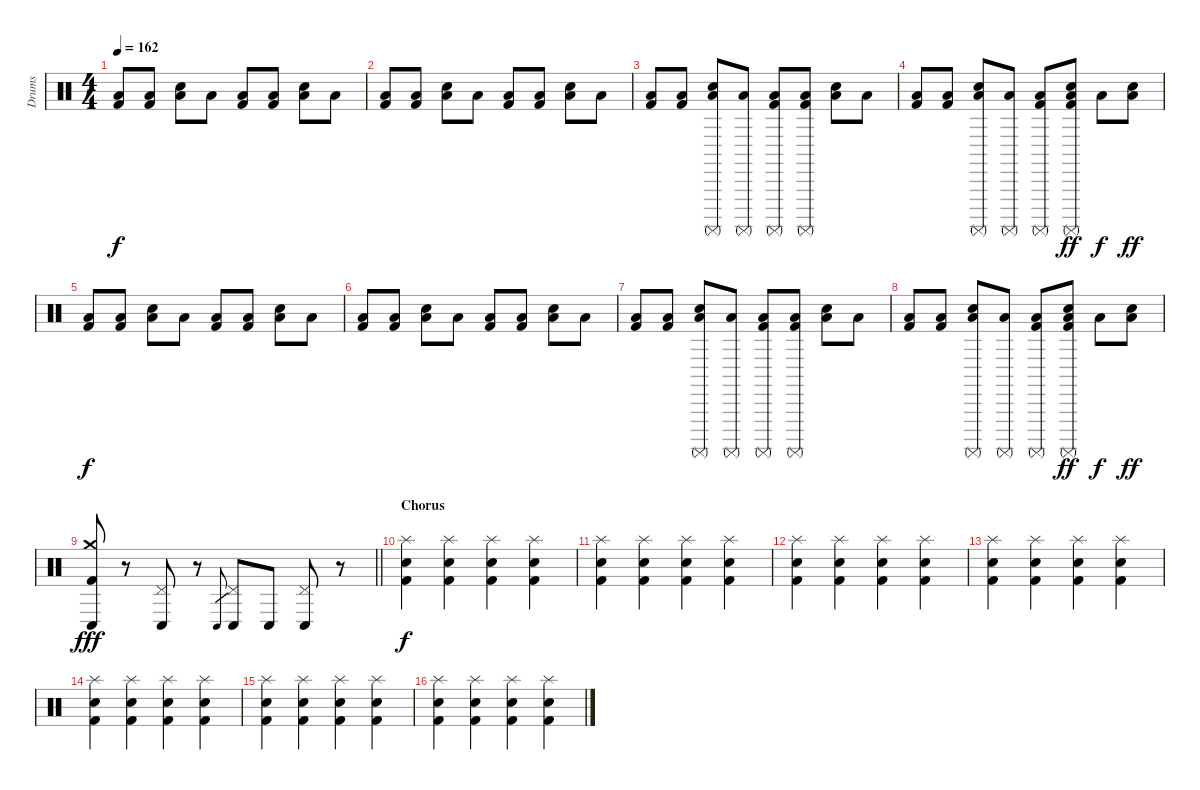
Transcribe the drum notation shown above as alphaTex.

\track ("Drums" "Drums") {instrument percussion}
\staff {score}
\articulation defaults
\ts (4 4)
\tempo 162
\clef neutral
\ks c
("Low Floor Tom (hit)" "Kick (hit) 2").8{dy f} ("Low Floor Tom (hit)" "Kick (hit) 2").8 ("Electric Snare (hit)" "Low Floor Tom (hit)").8 "Low Floor Tom (hit)".8 ("Low Floor Tom (hit)" "Kick (hit) 2").8 ("Low Floor Tom (hit)" "Kick (hit) 2").8 ("Electric Snare (hit)" "Low Floor Tom (hit)").8 "Low Floor Tom (hit)".8 |
("Low Floor Tom (hit)" "Kick (hit) 2").8 ("Low Floor Tom (hit)" "Kick (hit) 2").8 ("Electric Snare (hit)" "Low Floor Tom (hit)").8 "Low Floor Tom (hit)".8 ("Low Floor Tom (hit)" "Kick (hit) 2").8 ("Low Floor Tom (hit)" "Kick (hit) 2").8 ("Electric Snare (hit)" "Low Floor Tom (hit)").8 "Low Floor Tom (hit)".8 |
("Low Floor Tom (hit)" "Kick (hit) 2").8 ("Low Floor Tom (hit)" "Kick (hit) 2").8 ("Surdo (mute)" "Electric Snare (hit)" "Low Floor Tom (hit)").8 ("Surdo (mute)" "Low Floor Tom (hit)").8 ("Surdo (mute)" "Low Floor Tom (hit)" "Kick (hit) 2").8 ("Surdo (mute)" "Low Floor Tom (hit)" "Kick (hit) 2").8 ("Electric Snare (hit)" "Low Floor Tom (hit)").8 "Low Floor Tom (hit)".8 |
("Low Floor Tom (hit)" "Kick (hit) 2").8 ("Low Floor Tom (hit)" "Kick (hit) 2").8 ("Surdo (mute)" "Electric Snare (hit)" "Low Floor Tom (hit)").8 ("Surdo (mute)" "Low Floor Tom (hit)").8 ("Surdo (mute)" "Low Floor Tom (hit)" "Kick (hit) 2").8 ("Surdo (mute)" "Electric Snare (hit)" "Low Floor Tom (hit)" "Kick (hit) 2").8{dy ff} "Low Floor Tom (hit)".8{dy f} ("Electric Snare (hit)" "Low Floor Tom (hit)").8{dy ff} |
("Low Floor Tom (hit)" "Kick (hit) 2").8{dy f} ("Low Floor Tom (hit)" "Kick (hit) 2").8 ("Electric Snare (hit)" "Low Floor Tom (hit)").8 "Low Floor Tom (hit)".8 ("Low Floor Tom (hit)" "Kick (hit) 2").8 ("Low Floor Tom (hit)" "Kick (hit) 2").8 ("Electric Snare (hit)" "Low Floor Tom (hit)").8 "Low Floor Tom (hit)".8 |
("Low Floor Tom (hit)" "Kick (hit) 2").8 ("Low Floor Tom (hit)" "Kick (hit) 2").8 ("Electric Snare (hit)" "Low Floor Tom (hit)").8 "Low Floor Tom (hit)".8 ("Low Floor Tom (hit)" "Kick (hit) 2").8 ("Low Floor Tom (hit)" "Kick (hit) 2").8 ("Electric Snare (hit)" "Low Floor Tom (hit)").8 "Low Floor Tom (hit)".8 |
("Low Floor Tom (hit)" "Kick (hit) 2").8 ("Low Floor Tom (hit)" "Kick (hit) 2").8 ("Surdo (mute)" "Electric Snare (hit)" "Low Floor Tom (hit)").8 ("Surdo (mute)" "Low Floor Tom (hit)").8 ("Surdo (mute)" "Low Floor Tom (hit)" "Kick (hit) 2").8 ("Surdo (mute)" "Low Floor Tom (hit)" "Kick (hit) 2").8 ("Electric Snare (hit)" "Low Floor Tom (hit)").8 "Low Floor Tom (hit)".8 |
("Low Floor Tom (hit)" "Kick (hit) 2").8 ("Low Floor Tom (hit)" "Kick (hit) 2").8 ("Surdo (mute)" "Electric Snare (hit)" "Low Floor Tom (hit)").8 ("Surdo (mute)" "Low Floor Tom (hit)").8 ("Surdo (mute)" "Low Floor Tom (hit)" "Kick (hit) 2").8 ("Surdo (mute)" "Electric Snare (hit)" "Low Floor Tom (hit)" "Kick (hit) 2").8{dy ff} "Low Floor Tom (hit)".8{dy f} ("Electric Snare (hit)" "Low Floor Tom (hit)").8{dy ff} |
\barLineRight lightlight
("Crash medium (hit)" "Conga low (hit)" "Kick (hit) 2").8{dy fff} r.8 ("Pedal Hi-Hat (hit)" "Conga low (hit)").8 r.8 "Conga low (hit)".8{gr} ("Pedal Hi-Hat (hit)" "Conga low (hit)").8 "Conga low (hit)".8 ("Pedal Hi-Hat (hit)" "Conga low (hit)").8 r.8 |
\section ("" "Chorus")
("Splash (hit)" "Electric Snare (hit)" "Kick (hit) 2").4{dy f} ("Splash (hit)" "Electric Snare (hit)" "Kick (hit) 2").4 ("Splash (hit)" "Electric Snare (hit)" "Kick (hit) 2").4 ("Splash (hit)" "Electric Snare (hit)" "Kick (hit) 2").4 |
("Splash (hit)" "Electric Snare (hit)" "Kick (hit) 2").4 ("Splash (hit)" "Electric Snare (hit)" "Kick (hit) 2").4 ("Splash (hit)" "Electric Snare (hit)" "Kick (hit) 2").4 ("Splash (hit)" "Electric Snare (hit)" "Kick (hit) 2").4 |
("Splash (hit)" "Electric Snare (hit)" "Kick (hit) 2").4 ("Splash (hit)" "Electric Snare (hit)" "Kick (hit) 2").4 ("Splash (hit)" "Electric Snare (hit)" "Kick (hit) 2").4 ("Splash (hit)" "Electric Snare (hit)" "Kick (hit) 2").4 |
("Splash (hit)" "Electric Snare (hit)" "Kick (hit) 2").4 ("Splash (hit)" "Electric Snare (hit)" "Kick (hit) 2").4 ("Splash (hit)" "Electric Snare (hit)" "Kick (hit) 2").4 ("Splash (hit)" "Electric Snare (hit)" "Kick (hit) 2").4 |
("Splash (hit)" "Electric Snare (hit)" "Kick (hit) 2").4 ("Splash (hit)" "Electric Snare (hit)" "Kick (hit) 2").4 ("Splash (hit)" "Electric Snare (hit)" "Kick (hit) 2").4 ("Splash (hit)" "Electric Snare (hit)" "Kick (hit) 2").4 |
("Splash (hit)" "Electric Snare (hit)" "Kick (hit) 2").4 ("Splash (hit)" "Electric Snare (hit)" "Kick (hit) 2").4 ("Splash (hit)" "Electric Snare (hit)" "Kick (hit) 2").4 ("Splash (hit)" "Electric Snare (hit)" "Kick (hit) 2").4 |
("Splash (hit)" "Electric Snare (hit)" "Kick (hit) 2").4 ("Splash (hit)" "Electric Snare (hit)" "Kick (hit) 2").4 ("Splash (hit)" "Electric Snare (hit)" "Kick (hit) 2").4 ("Splash (hit)" "Electric Snare (hit)" "Kick (hit) 2").4
